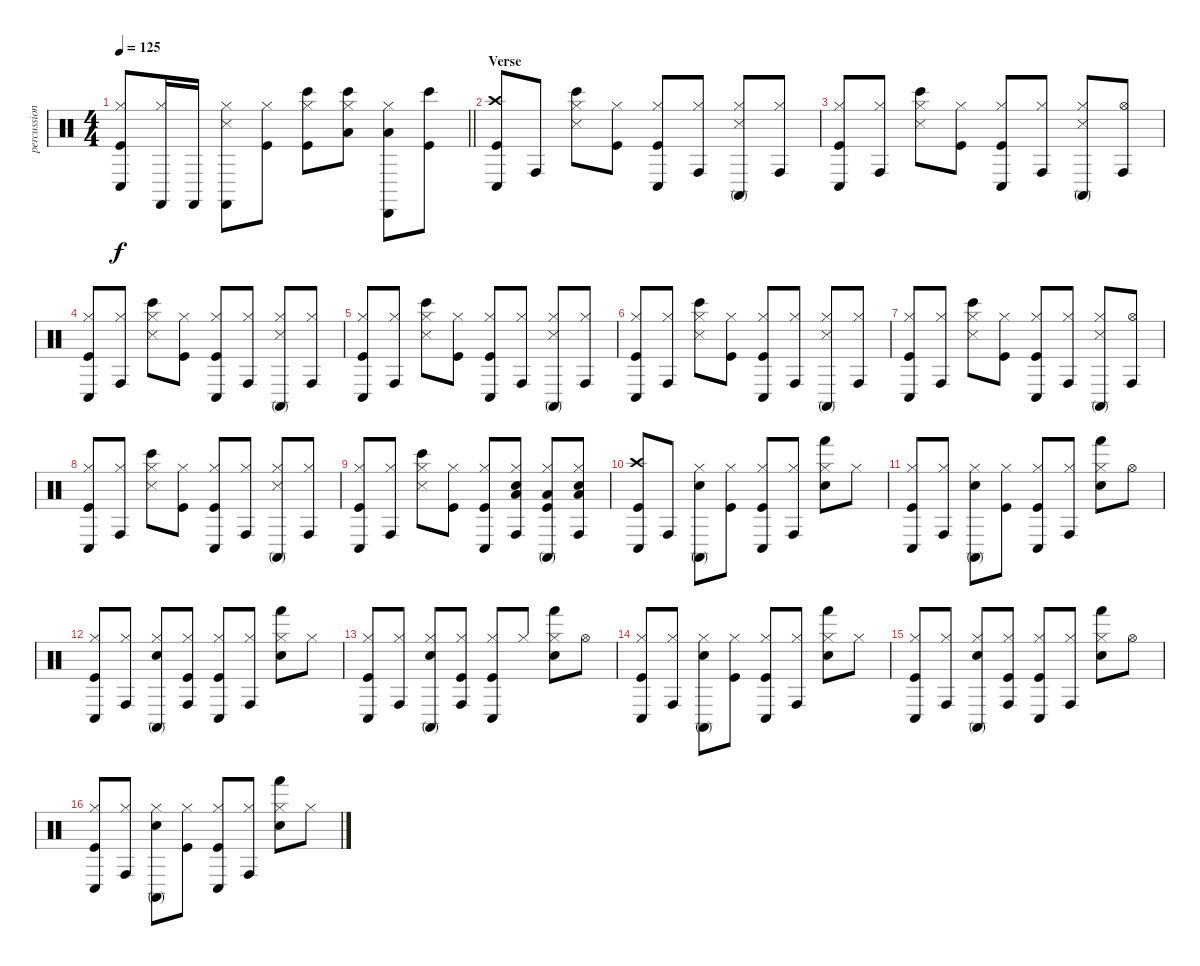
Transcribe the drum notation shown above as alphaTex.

\track ("percussion" "percussion") {instrument percussion}
\staff {score}
\articulation defaults
\ts (4 4)
\tempo 125
\clef neutral
\barLineRight lightlight
\ks c
("Conga low (hit)" "Hi-Hat (closed)" "Kick (hit)").8{dy f} ("Castanets (hit)" "Hi-Hat (closed)").16 "Castanets (hit)".16 ("Castanets (hit)" "Snare (side stick) 3" "Hi-Hat (closed)").8 ("Hi-Hat (closed)" "Kick (hit)").8 ("Bongo High (hit)" "Hi-Hat (closed)" "Kick (hit)").8 ("Bongo High (hit)" "Low Tom (hit)" "Hi-Hat (closed)").8 ("Cabasa (hit)" "Low Floor Tom (hit)" "Hi-Hat (closed)").8 ("Bongo High (hit)" "Kick (hit)").8 |
\section ("" "Verse")
("Crash high (hit)" "Conga low (hit)" "Kick (hit)").8 "Conga high (hit)".8 ("Bongo High (hit)" "Snare (side stick) 3" "Hi-Hat (closed)").8 ("Hi-Hat (closed)" "Kick (hit)").8 ("Conga low (hit)" "Hi-Hat (closed)" "Kick (hit)").8 ("Conga high (hit)" "Hi-Hat (closed)").8 ("Conga high (mute)" "Snare (side stick) 3" "Hi-Hat (closed)").8 ("Conga high (hit)" "Hi-Hat (closed)").8 |
("Conga low (hit)" "Hi-Hat (closed)" "Kick (hit)").8 ("Conga high (hit)" "Hi-Hat (closed)").8 ("Bongo High (hit)" "Snare (side stick) 3" "Hi-Hat (closed)").8 ("Hi-Hat (closed)" "Kick (hit)").8 ("Conga low (hit)" "Hi-Hat (closed)" "Kick (hit)").8 ("Conga high (hit)" "Hi-Hat (closed)").8 ("Conga high (mute)" "Snare (side stick) 3" "Hi-Hat (closed)").8 ("Conga high (hit)" "Hi-Hat (open)").8 |
("Conga low (hit)" "Hi-Hat (closed)" "Kick (hit)").8 ("Conga high (hit)" "Hi-Hat (closed)").8 ("Bongo High (hit)" "Snare (side stick) 3" "Hi-Hat (closed)").8 ("Hi-Hat (closed)" "Kick (hit)").8 ("Conga low (hit)" "Hi-Hat (closed)" "Kick (hit)").8 ("Conga high (hit)" "Hi-Hat (closed)").8 ("Conga high (mute)" "Snare (side stick) 3" "Hi-Hat (closed)").8 ("Conga high (hit)" "Hi-Hat (closed)").8 |
("Conga low (hit)" "Hi-Hat (closed)" "Kick (hit)").8 ("Conga high (hit)" "Hi-Hat (closed)").8 ("Bongo High (hit)" "Snare (side stick) 3" "Hi-Hat (closed)").8 ("Hi-Hat (closed)" "Kick (hit)").8 ("Conga low (hit)" "Hi-Hat (closed)" "Kick (hit)").8 ("Conga high (hit)" "Hi-Hat (closed)").8 ("Conga high (mute)" "Snare (side stick) 3" "Hi-Hat (closed)").8 ("Conga high (hit)" "Hi-Hat (closed)").8 |
("Conga low (hit)" "Hi-Hat (closed)" "Kick (hit)").8 ("Conga high (hit)" "Hi-Hat (closed)").8 ("Bongo High (hit)" "Snare (side stick) 3" "Hi-Hat (closed)").8 ("Hi-Hat (closed)" "Kick (hit)").8 ("Conga low (hit)" "Hi-Hat (closed)" "Kick (hit)").8 ("Conga high (hit)" "Hi-Hat (closed)").8 ("Conga high (mute)" "Snare (side stick) 3" "Hi-Hat (closed)").8 ("Conga high (hit)" "Hi-Hat (closed)").8 |
("Conga low (hit)" "Hi-Hat (closed)" "Kick (hit)").8 ("Conga high (hit)" "Hi-Hat (closed)").8 ("Bongo High (hit)" "Snare (side stick) 3" "Hi-Hat (closed)").8 ("Hi-Hat (closed)" "Kick (hit)").8 ("Conga low (hit)" "Hi-Hat (closed)" "Kick (hit)").8 ("Conga high (hit)" "Hi-Hat (closed)").8 ("Conga high (mute)" "Snare (side stick) 3" "Hi-Hat (closed)").8 ("Conga high (hit)" "Hi-Hat (open)").8 |
("Conga low (hit)" "Hi-Hat (closed)" "Kick (hit)").8 ("Conga high (hit)" "Hi-Hat (closed)").8 ("Bongo High (hit)" "Snare (side stick) 3" "Hi-Hat (closed)").8 ("Hi-Hat (closed)" "Kick (hit)").8 ("Conga low (hit)" "Hi-Hat (closed)" "Kick (hit)").8 ("Conga high (hit)" "Hi-Hat (closed)").8 ("Conga high (mute)" "Snare (side stick) 3" "Hi-Hat (closed)").8 ("Conga high (hit)" "Hi-Hat (closed)").8 |
("Conga low (hit)" "Hi-Hat (closed)" "Kick (hit)").8 ("Conga high (hit)" "Hi-Hat (closed)").8 ("Bongo High (hit)" "Snare (side stick) 3" "Hi-Hat (closed)").8 ("Hi-Hat (closed)" "Kick (hit)").8 ("Conga low (hit)" "Hi-Hat (closed)" "Kick (hit)").8 ("Conga high (hit)" "Low Tom (hit)" "Electric Snare (hit)" "Hi-Hat (closed)").8 ("Conga high (mute)" "Low Floor Tom (hit)" "Hi-Hat (closed)" "Kick (hit)").8 ("Conga high (hit)" "Low Tom (hit)" "Electric Snare (hit)" "Hi-Hat (closed)").8 |
("Crash high (hit)" "Conga low (hit)" "Kick (hit)").8 "Conga high (hit)".8 ("Conga high (mute)" "Electric Snare (hit)" "Hi-Hat (closed)").8 ("Hi-Hat (closed)" "Kick (hit)").8 ("Conga low (hit)" "Hi-Hat (closed)" "Kick (hit)").8 ("Conga high (hit)" "Hi-Hat (closed)").8 ("Hand (hit)" "Electric Snare (hit)" "Hi-Hat (closed)").8 "Hi-Hat (closed)".8 |
("Conga low (hit)" "Hi-Hat (closed)" "Kick (hit)").8 ("Conga high (hit)" "Hi-Hat (closed)").8 ("Conga high (mute)" "Electric Snare (hit)" "Hi-Hat (closed)").8 ("Hi-Hat (closed)" "Kick (hit)").8 ("Conga low (hit)" "Hi-Hat (closed)" "Kick (hit)").8 ("Conga high (hit)" "Hi-Hat (closed)").8 ("Hand (hit)" "Electric Snare (hit)" "Hi-Hat (closed)").8 "Hi-Hat (open)".8 |
("Conga low (hit)" "Hi-Hat (closed)" "Kick (hit)").8 ("Conga high (hit)" "Hi-Hat (closed)").8 ("Conga high (mute)" "Electric Snare (hit)" "Hi-Hat (closed)").8 ("Conga high (hit)" "Hi-Hat (closed)" "Kick (hit)").8 ("Conga low (hit)" "Hi-Hat (closed)" "Kick (hit)").8 ("Conga high (hit)" "Hi-Hat (closed)").8 ("Hand (hit)" "Electric Snare (hit)" "Hi-Hat (closed)").8 "Hi-Hat (closed)".8 |
("Conga low (hit)" "Hi-Hat (closed)" "Kick (hit)").8 ("Conga high (hit)" "Hi-Hat (closed)").8 ("Conga high (mute)" "Electric Snare (hit)" "Hi-Hat (closed)").8 ("Conga high (hit)" "Hi-Hat (closed)" "Kick (hit)").8 ("Conga low (hit)" "Hi-Hat (closed)" "Kick (hit)").8 "Hi-Hat (closed)".8 ("Hand (hit)" "Electric Snare (hit)" "Hi-Hat (closed)").8 "Hi-Hat (open)".8 |
("Conga low (hit)" "Hi-Hat (closed)" "Kick (hit)").8 ("Conga high (hit)" "Hi-Hat (closed)").8 ("Conga high (mute)" "Electric Snare (hit)" "Hi-Hat (closed)").8 ("Hi-Hat (closed)" "Kick (hit)").8 ("Conga low (hit)" "Hi-Hat (closed)" "Kick (hit)").8 ("Conga high (hit)" "Hi-Hat (closed)").8 ("Hand (hit)" "Electric Snare (hit)" "Hi-Hat (closed)").8 "Hi-Hat (closed)".8 |
("Conga low (hit)" "Hi-Hat (closed)" "Kick (hit)").8 ("Conga high (hit)" "Hi-Hat (closed)").8 ("Conga high (mute)" "Electric Snare (hit)" "Hi-Hat (closed)").8 ("Conga high (hit)" "Hi-Hat (closed)" "Kick (hit)").8 ("Conga low (hit)" "Hi-Hat (closed)" "Kick (hit)").8 ("Conga high (hit)" "Hi-Hat (closed)").8 ("Hand (hit)" "Electric Snare (hit)" "Hi-Hat (closed)").8 "Hi-Hat (open)".8 |
("Conga low (hit)" "Hi-Hat (closed)" "Kick (hit)").8 ("Conga high (hit)" "Hi-Hat (closed)").8 ("Conga high (mute)" "Electric Snare (hit)" "Hi-Hat (closed)").8 ("Hi-Hat (closed)" "Kick (hit)").8 ("Conga low (hit)" "Hi-Hat (closed)" "Kick (hit)").8 ("Conga high (hit)" "Hi-Hat (closed)").8 ("Hand (hit)" "Electric Snare (hit)" "Hi-Hat (closed)").8 "Hi-Hat (closed)".8
